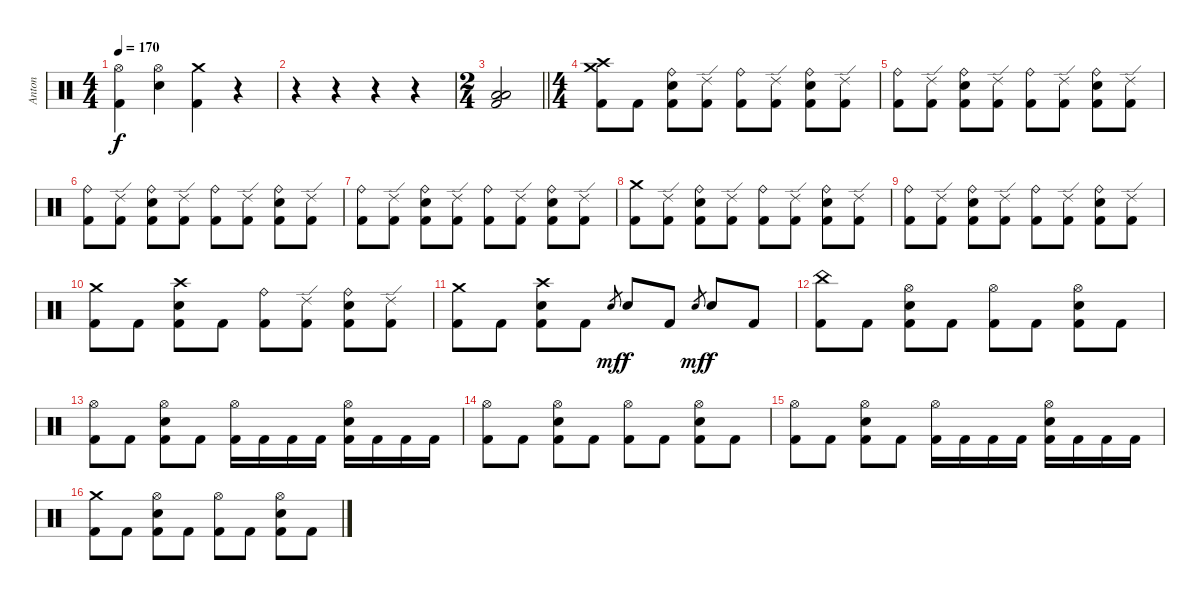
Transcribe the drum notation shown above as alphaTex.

\track ("Anton" "Anton") {instrument percussion}
\staff
\articulation defaults
\ts (4 4)
\tempo 170
\clef neutral
\ks c
("Hi-Hat (open)" "Kick (hit) 2").4{dy f} ("Hi-Hat (open)" "Electric Snare (hit)").4 ("Crash medium (hit)" "Kick (hit) 2").4 r.4 |
r.4 r.4 r.4 r.4 |
\ts (2 4)
\barLineRight lightlight
("Low Tom (hit)" "Low Floor Tom (hit)" "Kick (hit) 2").2 |
\ts (4 4)
("Crash high (hit)" "Crash medium (hit)" "Kick (hit) 2").8 "Kick (hit) 2".8 ("Ride (bell)" "Electric Snare (hit)" "Kick (hit) 2").8 ("Ride (edge) 2" "Kick (hit) 2").8 ("Ride (bell)" "Kick (hit) 2").8 ("Ride (edge) 2" "Kick (hit) 2").8 ("Ride (bell)" "Electric Snare (hit)" "Kick (hit) 2").8 ("Ride (edge) 2" "Kick (hit) 2").8 |
("Ride (bell)" "Kick (hit) 2").8 ("Ride (edge) 2" "Kick (hit) 2").8 ("Ride (bell)" "Electric Snare (hit)" "Kick (hit) 2").8 ("Ride (edge) 2" "Kick (hit) 2").8 ("Ride (bell)" "Kick (hit) 2").8 ("Ride (edge) 2" "Kick (hit) 2").8 ("Ride (bell)" "Electric Snare (hit)" "Kick (hit) 2").8 ("Ride (edge) 2" "Kick (hit) 2").8 |
("Ride (bell)" "Kick (hit) 2").8 ("Ride (edge) 2" "Kick (hit) 2").8 ("Ride (bell)" "Electric Snare (hit)" "Kick (hit) 2").8 ("Ride (edge) 2" "Kick (hit) 2").8 ("Ride (bell)" "Kick (hit) 2").8 ("Ride (edge) 2" "Kick (hit) 2").8 ("Ride (bell)" "Electric Snare (hit)" "Kick (hit) 2").8 ("Ride (edge) 2" "Kick (hit) 2").8 |
("Ride (bell)" "Kick (hit) 2").8 ("Ride (edge) 2" "Kick (hit) 2").8 ("Ride (bell)" "Electric Snare (hit)" "Kick (hit) 2").8 ("Ride (edge) 2" "Kick (hit) 2").8 ("Ride (bell)" "Kick (hit) 2").8 ("Ride (edge) 2" "Kick (hit) 2").8 ("Ride (bell)" "Electric Snare (hit)" "Kick (hit) 2").8 ("Ride (edge) 2" "Kick (hit) 2").8 |
("Crash medium (hit)" "Kick (hit) 2").8 ("Ride (edge) 2" "Kick (hit) 2").8 ("Ride (bell)" "Electric Snare (hit)" "Kick (hit) 2").8 ("Ride (edge) 2" "Kick (hit) 2").8 ("Ride (bell)" "Kick (hit) 2").8 ("Ride (edge) 2" "Kick (hit) 2").8 ("Ride (bell)" "Electric Snare (hit)" "Kick (hit) 2").8 ("Ride (edge) 2" "Kick (hit) 2").8 |
("Ride (bell)" "Kick (hit) 2").8 ("Ride (edge) 2" "Kick (hit) 2").8 ("Ride (bell)" "Electric Snare (hit)" "Kick (hit) 2").8 ("Ride (edge) 2" "Kick (hit) 2").8 ("Ride (bell)" "Kick (hit) 2").8 ("Ride (edge) 2" "Kick (hit) 2").8 ("Ride (bell)" "Electric Snare (hit)" "Kick (hit) 2").8 ("Ride (edge) 2" "Kick (hit) 2").8 |
("Crash medium (hit)" "Kick (hit) 2").8 "Kick (hit) 2".8 ("Crash high (hit)" "Electric Snare (hit)" "Kick (hit) 2").8 "Kick (hit) 2".8 ("Ride (bell)" "Kick (hit) 2").8 ("Ride (edge) 2" "Kick (hit) 2").8 ("Ride (bell)" "Electric Snare (hit)" "Kick (hit) 2").8 ("Ride (edge) 2" "Kick (hit) 2").8 |
("Crash medium (hit)" "Kick (hit) 2").8 "Kick (hit) 2".8 ("Crash high (hit)" "Electric Snare (hit)" "Kick (hit) 2").8 "Kick (hit) 2".8 "Electric Snare (hit)".8{gr dy mf} "Electric Snare (hit)".8{dy f} "Kick (hit) 2".8 "Electric Snare (hit)".8{gr dy mf} "Electric Snare (hit)".8{dy f} "Kick (hit) 2".8 |
("China (hit)" "Kick (hit) 2").8 "Kick (hit) 2".8 ("Hi-Hat (open)" "Electric Snare (hit)" "Kick (hit) 2").8 "Kick (hit) 2".8 ("Hi-Hat (open)" "Kick (hit) 2").8 "Kick (hit) 2".8 ("Hi-Hat (open)" "Electric Snare (hit)" "Kick (hit) 2").8 "Kick (hit) 2".8 |
("Hi-Hat (open)" "Kick (hit) 2").8 "Kick (hit) 2".8 ("Hi-Hat (open)" "Electric Snare (hit)" "Kick (hit) 2").8 "Kick (hit) 2".8 ("Hi-Hat (open)" "Kick (hit) 2").16 "Kick (hit) 2".16 "Kick (hit) 2".16 "Kick (hit) 2".16 ("Hi-Hat (open)" "Electric Snare (hit)" "Kick (hit) 2").16 "Kick (hit) 2".16 "Kick (hit) 2".16 "Kick (hit) 2".16 |
("Hi-Hat (open)" "Kick (hit) 2").8 "Kick (hit) 2".8 ("Hi-Hat (open)" "Electric Snare (hit)" "Kick (hit) 2").8 "Kick (hit) 2".8 ("Hi-Hat (open)" "Kick (hit) 2").8 "Kick (hit) 2".8 ("Hi-Hat (open)" "Electric Snare (hit)" "Kick (hit) 2").8 "Kick (hit) 2".8 |
("Hi-Hat (open)" "Kick (hit) 2").8 "Kick (hit) 2".8 ("Hi-Hat (open)" "Electric Snare (hit)" "Kick (hit) 2").8 "Kick (hit) 2".8 ("Hi-Hat (open)" "Kick (hit) 2").16 "Kick (hit) 2".16 "Kick (hit) 2".16 "Kick (hit) 2".16 ("Hi-Hat (open)" "Electric Snare (hit)" "Kick (hit) 2").16 "Kick (hit) 2".16 "Kick (hit) 2".16 "Kick (hit) 2".16 |
("Crash medium (hit)" "Kick (hit) 2").8 "Kick (hit) 2".8 ("Hi-Hat (open)" "Electric Snare (hit)" "Kick (hit) 2").8 "Kick (hit) 2".8 ("Hi-Hat (open)" "Kick (hit) 2").8 "Kick (hit) 2".8 ("Hi-Hat (open)" "Electric Snare (hit)" "Kick (hit) 2").8 "Kick (hit) 2".8
